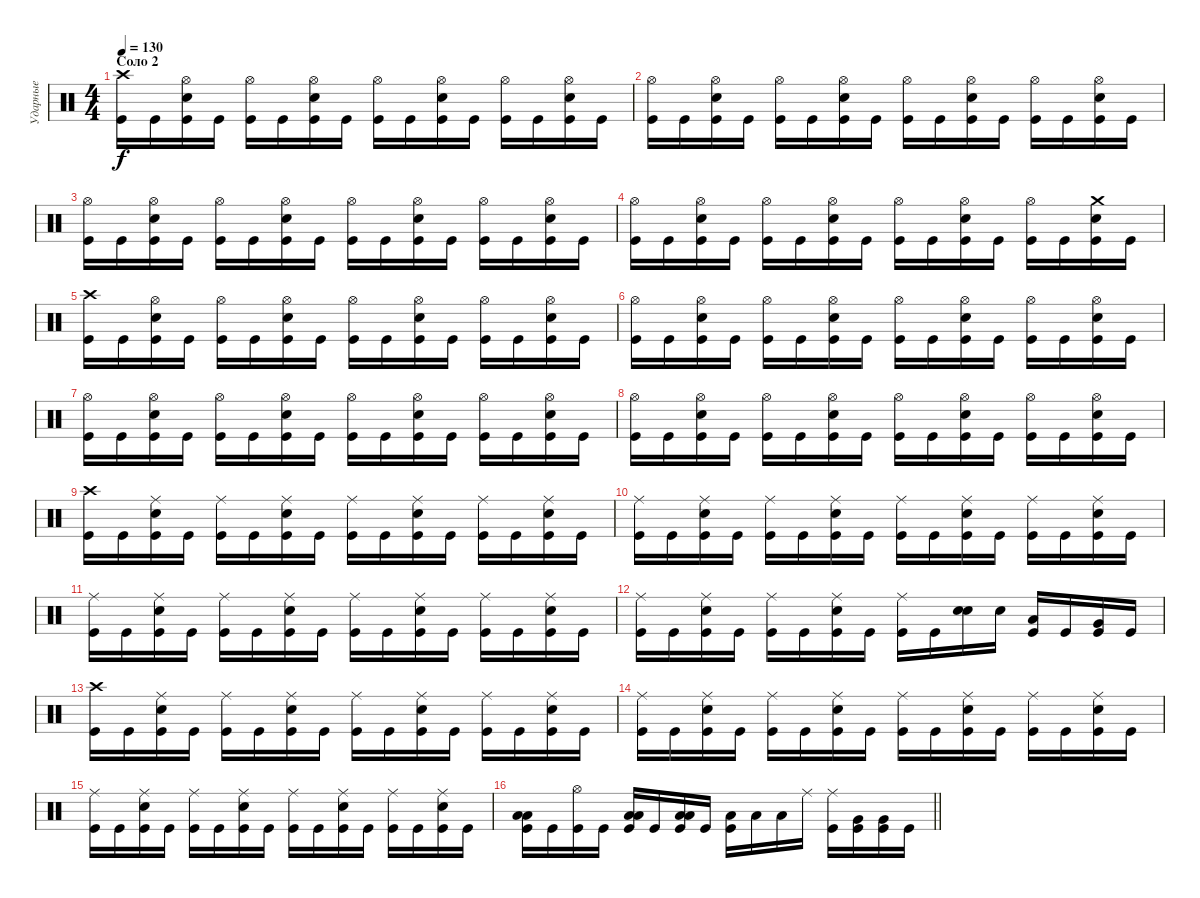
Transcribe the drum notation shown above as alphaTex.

\track ("Ударные" "Ударные") {instrument percussion}
\staff {score}
\articulation defaults
\ts (4 4)
\section ("" "Соло 2")
\tempo 130
\clef neutral
\ks c
("Kick (hit)" "Crash high (hit)").16{dy f} "Kick (hit)".16 ("Kick (hit)" "Snare (hit) 2" "Hi-Hat (open)").16 "Kick (hit)".16 ("Kick (hit)" "Hi-Hat (open)").16 "Kick (hit)".16 ("Kick (hit)" "Snare (hit) 2" "Hi-Hat (open)").16 "Kick (hit)".16 ("Kick (hit)" "Hi-Hat (open)").16 "Kick (hit)".16 ("Kick (hit)" "Snare (hit) 2" "Hi-Hat (open)").16 "Kick (hit)".16 ("Kick (hit)" "Hi-Hat (open)").16 "Kick (hit)".16 ("Kick (hit)" "Snare (hit) 2" "Hi-Hat (open)").16 "Kick (hit)".16 |
("Kick (hit)" "Hi-Hat (open)").16 "Kick (hit)".16 ("Kick (hit)" "Snare (hit) 2" "Hi-Hat (open)").16 "Kick (hit)".16 ("Kick (hit)" "Hi-Hat (open)").16 "Kick (hit)".16 ("Kick (hit)" "Snare (hit) 2" "Hi-Hat (open)").16 "Kick (hit)".16 ("Kick (hit)" "Hi-Hat (open)").16 "Kick (hit)".16 ("Kick (hit)" "Snare (hit) 2" "Hi-Hat (open)").16 "Kick (hit)".16 ("Kick (hit)" "Hi-Hat (open)").16 "Kick (hit)".16 ("Kick (hit)" "Snare (hit) 2" "Hi-Hat (open)").16 "Kick (hit)".16 |
("Kick (hit)" "Hi-Hat (open)").16 "Kick (hit)".16 ("Kick (hit)" "Snare (hit) 2" "Hi-Hat (open)").16 "Kick (hit)".16 ("Kick (hit)" "Hi-Hat (open)").16 "Kick (hit)".16 ("Kick (hit)" "Snare (hit) 2" "Hi-Hat (open)").16 "Kick (hit)".16 ("Kick (hit)" "Hi-Hat (open)").16 "Kick (hit)".16 ("Kick (hit)" "Snare (hit) 2" "Hi-Hat (open)").16 "Kick (hit)".16 ("Kick (hit)" "Hi-Hat (open)").16 "Kick (hit)".16 ("Kick (hit)" "Snare (hit) 2" "Hi-Hat (open)").16 "Kick (hit)".16 |
("Kick (hit)" "Hi-Hat (open)").16 "Kick (hit)".16 ("Kick (hit)" "Snare (hit) 2" "Hi-Hat (open)").16 "Kick (hit)".16 ("Kick (hit)" "Hi-Hat (open)").16 "Kick (hit)".16 ("Kick (hit)" "Snare (hit) 2" "Hi-Hat (open)").16 "Kick (hit)".16 ("Kick (hit)" "Hi-Hat (open)").16 "Kick (hit)".16 ("Kick (hit)" "Snare (hit) 2" "Hi-Hat (open)").16 "Kick (hit)".16 ("Kick (hit)" "Hi-Hat (open)").16 "Kick (hit)".16 ("Kick (hit)" "Snare (hit) 2" "Crash medium (hit)").16 "Kick (hit)".16 |
("Kick (hit)" "Crash high (hit)").16 "Kick (hit)".16 ("Kick (hit)" "Snare (hit) 2" "Hi-Hat (open)").16 "Kick (hit)".16 ("Kick (hit)" "Hi-Hat (open)").16 "Kick (hit)".16 ("Kick (hit)" "Snare (hit) 2" "Hi-Hat (open)").16 "Kick (hit)".16 ("Kick (hit)" "Hi-Hat (open)").16 "Kick (hit)".16 ("Kick (hit)" "Snare (hit) 2" "Hi-Hat (open)").16 "Kick (hit)".16 ("Kick (hit)" "Hi-Hat (open)").16 "Kick (hit)".16 ("Kick (hit)" "Snare (hit) 2" "Hi-Hat (open)").16 "Kick (hit)".16 |
("Kick (hit)" "Hi-Hat (open)").16 "Kick (hit)".16 ("Kick (hit)" "Snare (hit) 2" "Hi-Hat (open)").16 "Kick (hit)".16 ("Kick (hit)" "Hi-Hat (open)").16 "Kick (hit)".16 ("Kick (hit)" "Snare (hit) 2" "Hi-Hat (open)").16 "Kick (hit)".16 ("Kick (hit)" "Hi-Hat (open)").16 "Kick (hit)".16 ("Kick (hit)" "Snare (hit) 2" "Hi-Hat (open)").16 "Kick (hit)".16 ("Kick (hit)" "Hi-Hat (open)").16 "Kick (hit)".16 ("Kick (hit)" "Snare (hit) 2" "Hi-Hat (open)").16 "Kick (hit)".16 |
("Kick (hit)" "Hi-Hat (open)").16 "Kick (hit)".16 ("Kick (hit)" "Snare (hit) 2" "Hi-Hat (open)").16 "Kick (hit)".16 ("Kick (hit)" "Hi-Hat (open)").16 "Kick (hit)".16 ("Kick (hit)" "Snare (hit) 2" "Hi-Hat (open)").16 "Kick (hit)".16 ("Kick (hit)" "Hi-Hat (open)").16 "Kick (hit)".16 ("Kick (hit)" "Snare (hit) 2" "Hi-Hat (open)").16 "Kick (hit)".16 ("Kick (hit)" "Hi-Hat (open)").16 "Kick (hit)".16 ("Kick (hit)" "Snare (hit) 2" "Hi-Hat (open)").16 "Kick (hit)".16 |
("Kick (hit)" "Hi-Hat (open)").16 "Kick (hit)".16 ("Kick (hit)" "Snare (hit) 2" "Hi-Hat (open)").16 "Kick (hit)".16 ("Kick (hit)" "Hi-Hat (open)").16 "Kick (hit)".16 ("Kick (hit)" "Snare (hit) 2" "Hi-Hat (open)").16 "Kick (hit)".16 ("Kick (hit)" "Hi-Hat (open)").16 "Kick (hit)".16 ("Kick (hit)" "Snare (hit) 2" "Hi-Hat (open)").16 "Kick (hit)".16 ("Kick (hit)" "Hi-Hat (open)").16 "Kick (hit)".16 ("Kick (hit)" "Snare (hit) 2" "Hi-Hat (open)").16 "Kick (hit)".16 |
("Kick (hit)" "Crash high (hit)").16 "Kick (hit)".16 ("Kick (hit)" "Snare (hit) 2" "Ride (middle)").16 "Kick (hit)".16 ("Kick (hit)" "Ride (middle)").16 "Kick (hit)".16 ("Kick (hit)" "Snare (hit) 2" "Ride (middle)").16 "Kick (hit)".16 ("Kick (hit)" "Ride (middle)").16 "Kick (hit)".16 ("Kick (hit)" "Snare (hit) 2" "Ride (middle)").16 "Kick (hit)".16 ("Kick (hit)" "Ride (middle)").16 "Kick (hit)".16 ("Kick (hit)" "Snare (hit) 2" "Ride (middle)").16 "Kick (hit)".16 |
("Kick (hit)" "Ride (middle)").16 "Kick (hit)".16 ("Kick (hit)" "Snare (hit) 2" "Ride (middle)").16 "Kick (hit)".16 ("Kick (hit)" "Ride (middle)").16 "Kick (hit)".16 ("Kick (hit)" "Snare (hit) 2" "Ride (middle)").16 "Kick (hit)".16 ("Kick (hit)" "Ride (middle)").16 "Kick (hit)".16 ("Kick (hit)" "Snare (hit) 2" "Ride (middle)").16 "Kick (hit)".16 ("Kick (hit)" "Ride (middle)").16 "Kick (hit)".16 ("Kick (hit)" "Snare (hit) 2" "Ride (middle)").16 "Kick (hit)".16 |
("Kick (hit)" "Ride (middle)").16 "Kick (hit)".16 ("Kick (hit)" "Snare (hit) 2" "Ride (middle)").16 "Kick (hit)".16 ("Kick (hit)" "Ride (middle)").16 "Kick (hit)".16 ("Kick (hit)" "Snare (hit) 2" "Ride (middle)").16 "Kick (hit)".16 ("Kick (hit)" "Ride (middle)").16 "Kick (hit)".16 ("Kick (hit)" "Snare (hit) 2" "Ride (middle)").16 "Kick (hit)".16 ("Kick (hit)" "Ride (middle)").16 "Kick (hit)".16 ("Kick (hit)" "Snare (hit) 2" "Ride (middle)").16 "Kick (hit)".16 |
("Kick (hit)" "Ride (middle)").16 "Kick (hit)".16 ("Kick (hit)" "Snare (hit) 2" "Ride (middle)").16 "Kick (hit)".16 ("Kick (hit)" "Ride (middle)").16 "Kick (hit)".16 ("Kick (hit)" "Snare (hit) 2" "Ride (middle)").16 "Kick (hit)".16 ("Kick (hit)" "Ride (middle)").16 "Kick (hit)".16 ("Snare (hit) 2" "Snare (hit) 2").16{bd 60} "Snare (hit) 2".16 ("Kick (hit)" "Low Tom (hit)").16 "Kick (hit)".16 ("Kick (hit)" "Very Low Tom (hit)").16 "Kick (hit)".16 |
("Kick (hit)" "Crash high (hit)").16 "Kick (hit)".16 ("Kick (hit)" "Snare (hit) 2" "Ride (middle)").16 "Kick (hit)".16 ("Kick (hit)" "Ride (middle)").16 "Kick (hit)".16 ("Kick (hit)" "Snare (hit) 2" "Ride (middle)").16 "Kick (hit)".16 ("Kick (hit)" "Ride (middle)").16 "Kick (hit)".16 ("Kick (hit)" "Snare (hit) 2" "Ride (middle)").16 "Kick (hit)".16 ("Kick (hit)" "Ride (middle)").16 "Kick (hit)".16 ("Kick (hit)" "Snare (hit) 2" "Ride (middle)").16 "Kick (hit)".16 |
("Kick (hit)" "Ride (middle)").16 "Kick (hit)".16 ("Kick (hit)" "Snare (hit) 2" "Ride (middle)").16 "Kick (hit)".16 ("Kick (hit)" "Ride (middle)").16 "Kick (hit)".16 ("Kick (hit)" "Snare (hit) 2" "Ride (middle)").16 "Kick (hit)".16 ("Kick (hit)" "Ride (middle)").16 "Kick (hit)".16 ("Kick (hit)" "Snare (hit) 2" "Ride (middle)").16 "Kick (hit)".16 ("Kick (hit)" "Ride (middle)").16 "Kick (hit)".16 ("Kick (hit)" "Snare (hit) 2" "Ride (middle)").16 "Kick (hit)".16 |
("Kick (hit)" "Ride (middle)").16 "Kick (hit)".16 ("Kick (hit)" "Snare (hit) 2" "Ride (middle)").16 "Kick (hit)".16 ("Kick (hit)" "Ride (middle)").16 "Kick (hit)".16 ("Kick (hit)" "Snare (hit) 2" "Ride (middle)").16 "Kick (hit)".16 ("Kick (hit)" "Ride (middle)").16 "Kick (hit)".16 ("Kick (hit)" "Snare (hit) 2" "Ride (middle)").16 "Kick (hit)".16 ("Kick (hit)" "Ride (middle)").16 "Kick (hit)".16 ("Kick (hit)" "Snare (hit) 2" "Ride (middle)").16 "Kick (hit)".16 |
\barLineRight lightlight
("Kick (hit)" "Low Tom (hit)" "Low Tom (hit)").16 "Kick (hit)".16 ("Kick (hit)" "Hi-Hat (open)").16 "Kick (hit)".16 ("Kick (hit)" "Low Tom (hit)" "Low Tom (hit)").16 "Kick (hit)".16 ("Kick (hit)" "Low Tom (hit)" "Low Tom (hit)").16 "Kick (hit)".16 ("Kick (hit)" "Low Tom (hit)").16 "Low Tom (hit)".16 "Low Tom (hit)".16 "Ride (middle)".16 ("Kick (hit)" "Ride (middle)").16 ("Kick (hit)" "Very Low Tom (hit)").16 ("Kick (hit)" "Very Low Tom (hit)").16 "Kick (hit)".16
